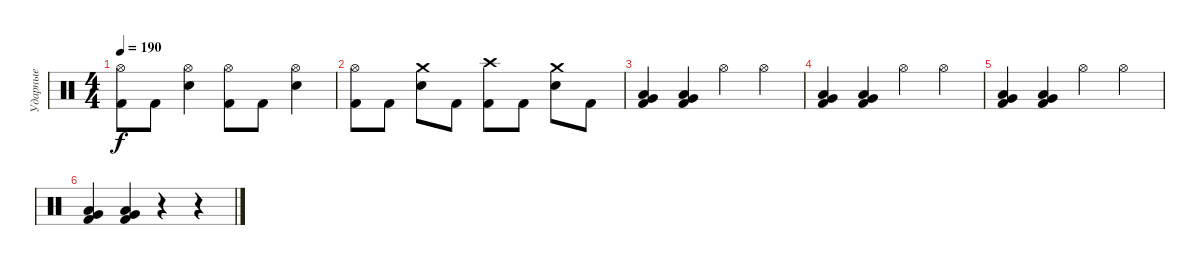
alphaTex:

\track ("Ударные" "Ударные") {instrument percussion}
\staff {score}
\articulation defaults
\ts (4 4)
\tempo 190
\clef neutral
\ks c
("Hi-Hat (open)" "Kick (hit) 2").8{dy f} "Kick (hit) 2".8 ("Hi-Hat (open)" "Snare (hit) 2").4 ("Hi-Hat (open)" "Kick (hit) 2").8 "Kick (hit) 2".8 ("Hi-Hat (open)" "Snare (hit) 2").4 |
("Hi-Hat (open)" "Kick (hit) 2").8 "Kick (hit) 2".8 ("Crash medium (hit)" "Snare (hit) 2").8 "Kick (hit) 2".8 ("Crash high (hit)" "Kick (hit) 2").8 "Kick (hit) 2".8 ("Crash medium (hit)" "Snare (hit) 2").8 "Kick (hit) 2".8 |
("Low Floor Tom (hit)" "Very Low Tom (hit)" "Kick (hit) 2").4 ("Low Floor Tom (hit)" "Very Low Tom (hit)" "Kick (hit) 2").4 "Hi-Hat (open)".4 "Hi-Hat (open)".4 |
("Low Floor Tom (hit)" "Very Low Tom (hit)" "Kick (hit) 2").4 ("Low Floor Tom (hit)" "Very Low Tom (hit)" "Kick (hit) 2").4 "Hi-Hat (open)".4 "Hi-Hat (open)".4 |
("Low Floor Tom (hit)" "Very Low Tom (hit)" "Kick (hit) 2").4 ("Low Floor Tom (hit)" "Very Low Tom (hit)" "Kick (hit) 2").4 "Hi-Hat (open)".4 "Hi-Hat (open)".4 |
("Low Floor Tom (hit)" "Very Low Tom (hit)" "Kick (hit) 2").4 ("Low Floor Tom (hit)" "Very Low Tom (hit)" "Kick (hit) 2").4 r.4 r.4
